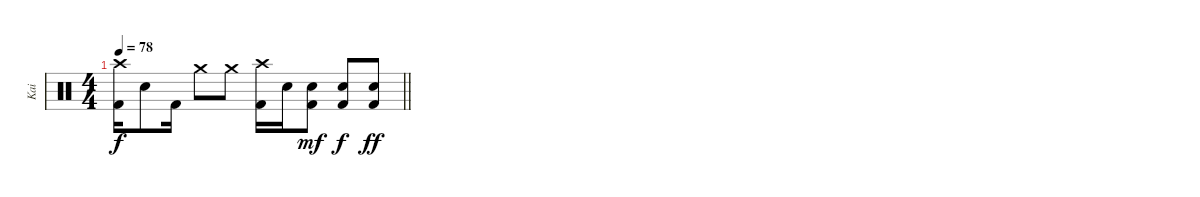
\track ("Kai" "Kai") {instrument percussion}
\staff {score}
\articulation defaults
\ts (4 4)
\tempo 78
\clef neutral
\barLineRight lightlight
\ks c
("Crash high (hit)" "Kick (hit) 2").16{dy f} "Electric Snare (hit)".8 "Kick (hit) 2".16 "Crash medium (hit)".8 "Crash medium (hit)".8 ("Crash high (hit)" "Kick (hit) 2").16 "Electric Snare (hit)".16 ("Electric Snare (hit)" "Kick (hit) 2").8{dy mf} ("Electric Snare (hit)" "Kick (hit) 2").8{dy f} ("Electric Snare (hit)" "Kick (hit) 2").8{dy ff}
